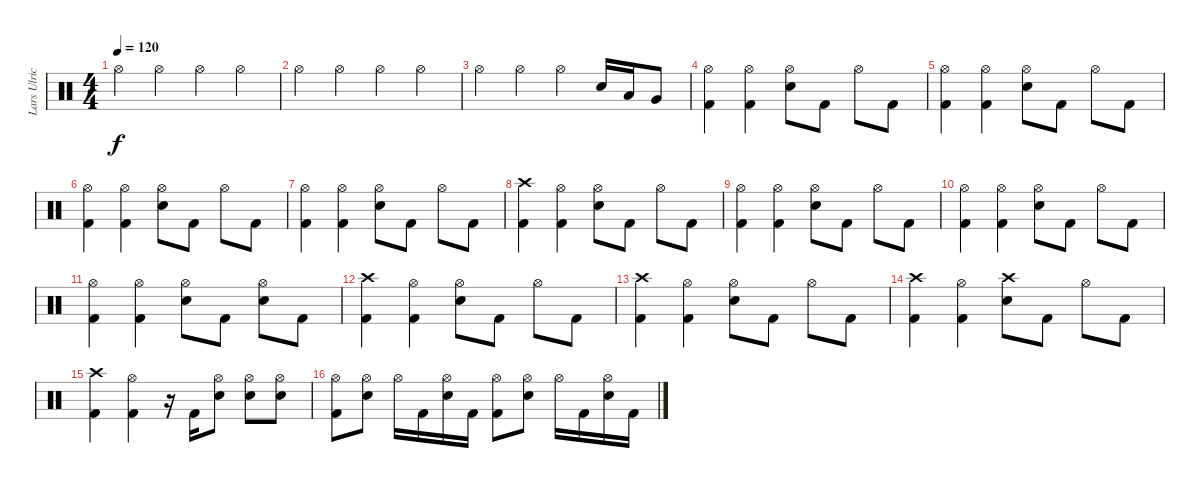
\track ("Lars Ulrich" "Lars Ulric") {instrument percussion}
\staff {score}
\articulation defaults
\ts (4 4)
\tempo 120
\clef neutral
\ks c "Hi-Hat (open)".4{dy f} "Hi-Hat (open)".4 "Hi-Hat (open)".4 "Hi-Hat (open)".4
|
"Hi-Hat (open)".4 "Hi-Hat (open)".4 "Hi-Hat (open)".4 "Hi-Hat (open)".4 |
"Hi-Hat (open)".4 "Hi-Hat (open)".4 "Hi-Hat (open)".4 "Electric Snare (hit)".16 "Low Tom (hit)".16 "Very Low Tom (hit)".8 |
("Hi-Hat (open)" "Kick (hit) 2").4 ("Hi-Hat (open)" "Kick (hit) 2").4 ("Hi-Hat (open)" "Electric Snare (hit)").8 "Kick (hit) 2".8 "Hi-Hat (open)".8 "Kick (hit) 2".8 |
("Hi-Hat (open)" "Kick (hit) 2").4 ("Hi-Hat (open)" "Kick (hit) 2").4 ("Hi-Hat (open)" "Electric Snare (hit)").8 "Kick (hit) 2".8 "Hi-Hat (open)".8 "Kick (hit) 2".8 |
("Hi-Hat (open)" "Kick (hit) 2").4 ("Hi-Hat (open)" "Kick (hit) 2").4 ("Hi-Hat (open)" "Electric Snare (hit)").8 "Kick (hit) 2".8 "Hi-Hat (open)".8 "Kick (hit) 2".8 |
("Hi-Hat (open)" "Kick (hit) 2").4 ("Hi-Hat (open)" "Kick (hit) 2").4 ("Hi-Hat (open)" "Electric Snare (hit)").8 "Kick (hit) 2".8 "Hi-Hat (open)".8 "Kick (hit) 2".8 |
("Crash high (hit)" "Kick (hit) 2").4 ("Hi-Hat (open)" "Kick (hit) 2").4 ("Hi-Hat (open)" "Electric Snare (hit)").8 "Kick (hit) 2".8 "Hi-Hat (open)".8 "Kick (hit) 2".8 |
("Hi-Hat (open)" "Kick (hit) 2").4 ("Hi-Hat (open)" "Kick (hit) 2").4 ("Hi-Hat (open)" "Electric Snare (hit)").8 "Kick (hit) 2".8 "Hi-Hat (open)".8 "Kick (hit) 2".8 |
("Hi-Hat (open)" "Kick (hit) 2").4 ("Hi-Hat (open)" "Kick (hit) 2").4 ("Hi-Hat (open)" "Electric Snare (hit)").8 "Kick (hit) 2".8 "Hi-Hat (open)".8 "Kick (hit) 2".8 |
("Hi-Hat (open)" "Kick (hit) 2").4 ("Hi-Hat (open)" "Kick (hit) 2").4 ("Hi-Hat (open)" "Electric Snare (hit)").8 "Kick (hit) 2".8 ("Hi-Hat (open)" "Electric Snare (hit)").8 "Kick (hit) 2".8 |
("Crash high (hit)" "Kick (hit) 2").4 ("Hi-Hat (open)" "Kick (hit) 2").4 ("Hi-Hat (open)" "Electric Snare (hit)").8 "Kick (hit) 2".8 "Hi-Hat (open)".8 "Kick (hit) 2".8 |
("Crash high (hit)" "Kick (hit) 2").4 ("Hi-Hat (open)" "Kick (hit) 2").4 ("Hi-Hat (open)" "Electric Snare (hit)").8 "Kick (hit) 2".8 "Hi-Hat (open)".8 "Kick (hit) 2".8 |
("Crash high (hit)" "Kick (hit) 2").4 ("Hi-Hat (open)" "Kick (hit) 2").4 ("Crash high (hit)" "Electric Snare (hit)").8 "Kick (hit) 2".8 "Hi-Hat (open)".8 "Kick (hit) 2".8 |
("Crash high (hit)" "Kick (hit) 2").4 ("Hi-Hat (open)" "Kick (hit) 2").4 r.16 "Kick (hit) 2".16 ("Hi-Hat (open)" "Electric Snare (hit)").8 ("Hi-Hat (open)" "Electric Snare (hit)").8 ("Hi-Hat (open)" "Electric Snare (hit)").8 |
("Hi-Hat (open)" "Kick (hit) 2").8 ("Hi-Hat (open)" "Electric Snare (hit)").8 "Hi-Hat (open)".16 "Kick (hit) 2".16 ("Hi-Hat (open)" "Electric Snare (hit)").16 "Kick (hit) 2".16 ("Hi-Hat (open)" "Kick (hit) 2").8 ("Hi-Hat (open)" "Electric Snare (hit)").8 "Hi-Hat (open)".16 "Kick (hit) 2".16 ("Hi-Hat (open)" "Electric Snare (hit)").16 "Kick (hit) 2".16
